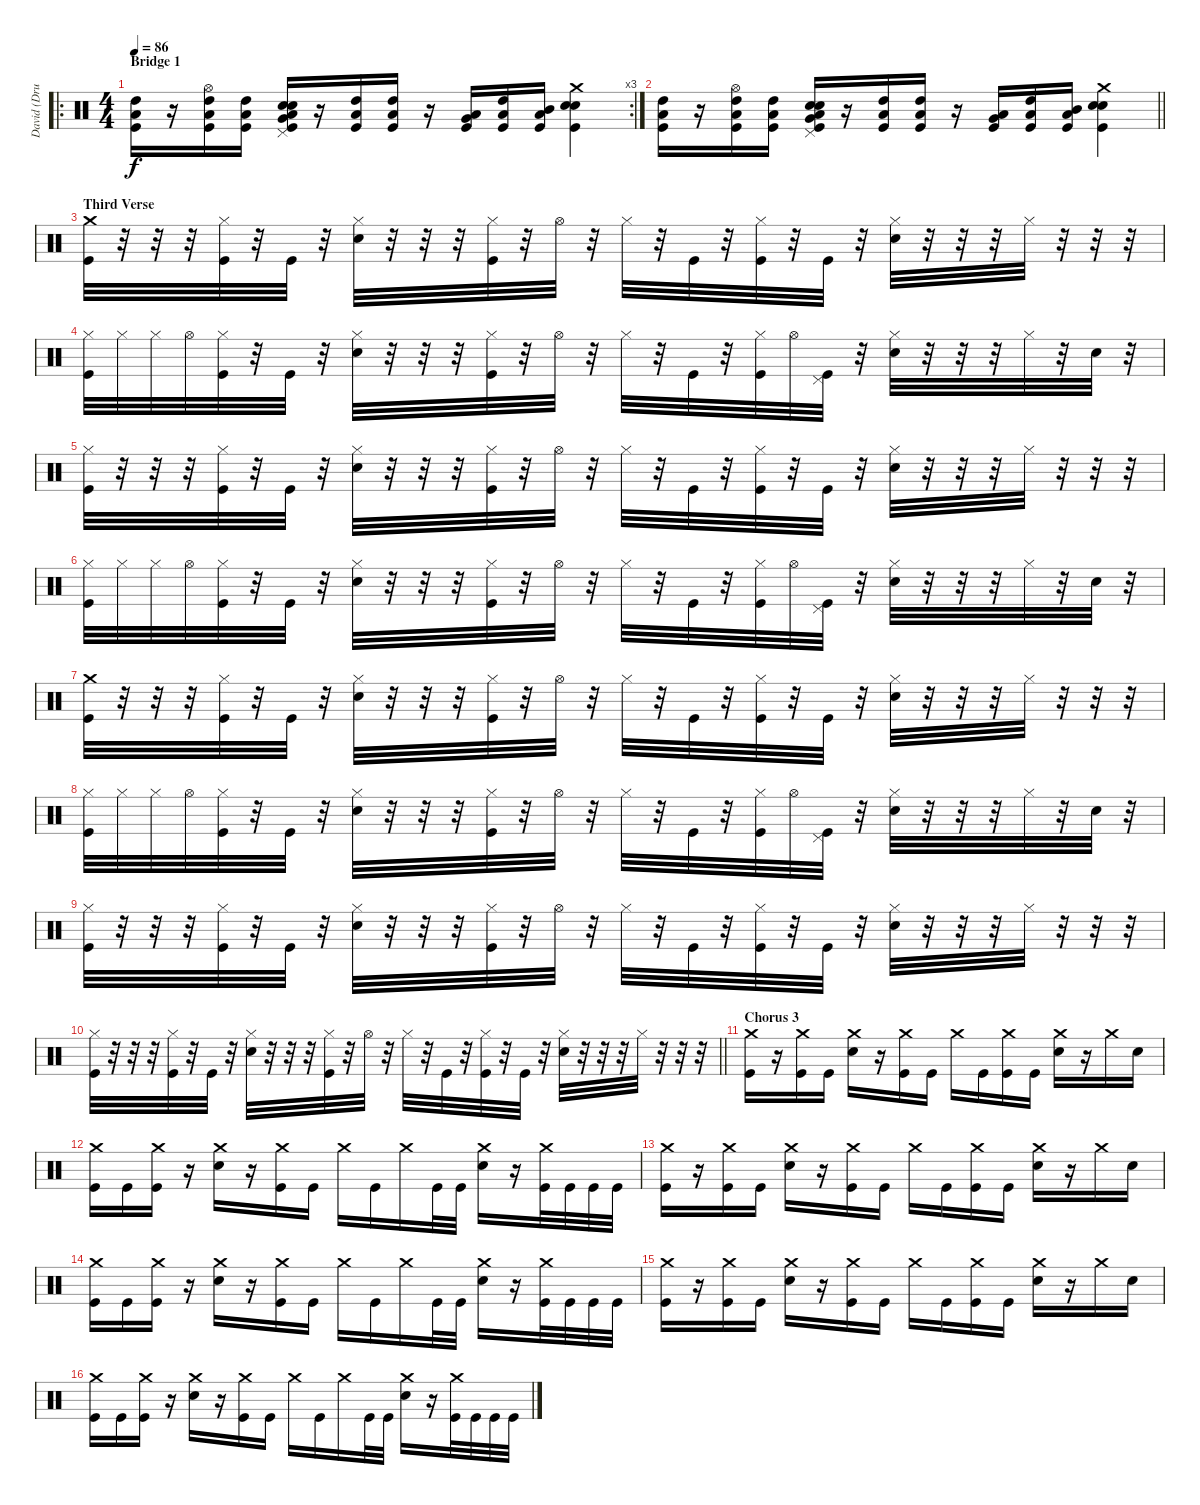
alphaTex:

\track ("David (Drums)" "David (Dru") {instrument percussion}
\staff {score}
\articulation defaults
\ro
\rc 3
\ts (4 4)
\section ("" "Bridge 1")
\tempo 86
\clef neutral
\ks c
("Low Floor Tom (hit)" "High Tom (hit)" "Kick (hit)").16{dy f} r.16 ("Hi-Hat (open)" "Low Floor Tom (hit)" "High Tom (hit)" "Kick (hit)").16 ("Low Floor Tom (hit)" "High Tom (hit)" "Kick (hit)").16 ("Pedal Hi-Hat (hit)" "Low Floor Tom (hit)" "Electric Snare (hit)" "Kick (hit)" "Snare (hit) 2" "Very Low Tom (hit)").16 r.16 ("Low Floor Tom (hit)" "High Tom (hit)" "Kick (hit)").16 ("Low Floor Tom (hit)" "High Tom (hit)" "Kick (hit)").16 r.16 ("Low Floor Tom (hit)" "Very Low Tom (hit)" "Kick (hit)").16 ("Low Floor Tom (hit)" "High Tom (hit)" "Kick (hit)").16 ("Low Floor Tom (hit)" "Mid Tom (hit)" "Kick (hit)").16 ("Crash medium (hit)" "Snare (hit) 2" "Electric Snare (hit)" "Kick (hit)").4 |
\barLineRight lightlight
("Low Floor Tom (hit)" "High Tom (hit)" "Kick (hit)").16 r.16 ("Hi-Hat (open)" "Low Floor Tom (hit)" "High Tom (hit)" "Kick (hit)").16 ("Low Floor Tom (hit)" "High Tom (hit)" "Kick (hit)").16 ("Pedal Hi-Hat (hit)" "Low Floor Tom (hit)" "Electric Snare (hit)" "Kick (hit)" "Snare (hit) 2" "Very Low Tom (hit)").16 r.16 ("Low Floor Tom (hit)" "High Tom (hit)" "Kick (hit)").16 ("Low Floor Tom (hit)" "High Tom (hit)" "Kick (hit)").16 r.16 ("Low Floor Tom (hit)" "Very Low Tom (hit)" "Kick (hit)").16 ("Low Floor Tom (hit)" "High Tom (hit)" "Kick (hit)").16 ("Low Floor Tom (hit)" "Mid Tom (hit)" "Kick (hit)").16 ("Crash medium (hit)" "Snare (hit) 2" "Electric Snare (hit)" "Kick (hit)").4 |
\section ("" "Third Verse")
("Crash medium (hit)" "Kick (hit)").32 r.32 r.32 r.32 ("Hi-Hat (closed)" "Kick (hit)").32 r.32 "Kick (hit)".32 r.32 ("Hi-Hat (closed)" "Electric Snare (hit)").32 r.32 r.32 r.32 ("Hi-Hat (closed)" "Kick (hit)").32 r.32 "Hi-Hat (open)".32 r.32 "Hi-Hat (closed)".32 r.32 "Kick (hit)".32 r.32 ("Hi-Hat (closed)" "Kick (hit)").32 r.32 "Kick (hit)".32 r.32 ("Hi-Hat (closed)" "Electric Snare (hit)").32 r.32 r.32 r.32 "Hi-Hat (closed)".32 r.32 r.32 r.32 |
("Hi-Hat (closed)" "Kick (hit)").32 "Hi-Hat (closed)".32 "Hi-Hat (closed)".32 "Hi-Hat (open)".32 ("Hi-Hat (closed)" "Kick (hit)").32 r.32 "Kick (hit)".32 r.32 ("Hi-Hat (closed)" "Electric Snare (hit)").32 r.32 r.32 r.32 ("Hi-Hat (closed)" "Kick (hit)").32 r.32 "Hi-Hat (open)".32 r.32 "Hi-Hat (closed)".32 r.32 "Kick (hit)".32 r.32 ("Hi-Hat (closed)" "Kick (hit)").32 "Hi-Hat (open)".32 ("Pedal Hi-Hat (hit)" "Kick (hit)").32 r.32 ("Hi-Hat (closed)" "Electric Snare (hit)").32 r.32 r.32 r.32 "Hi-Hat (closed)".32 r.32 "Electric Snare (hit)".32 r.32 |
("Hi-Hat (closed)" "Kick (hit)").32 r.32 r.32 r.32 ("Hi-Hat (closed)" "Kick (hit)").32 r.32 "Kick (hit)".32 r.32 ("Hi-Hat (closed)" "Electric Snare (hit)").32 r.32 r.32 r.32 ("Hi-Hat (closed)" "Kick (hit)").32 r.32 "Hi-Hat (open)".32 r.32 "Hi-Hat (closed)".32 r.32 "Kick (hit)".32 r.32 ("Hi-Hat (closed)" "Kick (hit)").32 r.32 "Kick (hit)".32 r.32 ("Hi-Hat (closed)" "Electric Snare (hit)").32 r.32 r.32 r.32 "Hi-Hat (closed)".32 r.32 r.32 r.32 |
("Hi-Hat (closed)" "Kick (hit)").32 "Hi-Hat (closed)".32 "Hi-Hat (closed)".32 "Hi-Hat (open)".32 ("Hi-Hat (closed)" "Kick (hit)").32 r.32 "Kick (hit)".32 r.32 ("Hi-Hat (closed)" "Electric Snare (hit)").32 r.32 r.32 r.32 ("Hi-Hat (closed)" "Kick (hit)").32 r.32 "Hi-Hat (open)".32 r.32 "Hi-Hat (closed)".32 r.32 "Kick (hit)".32 r.32 ("Hi-Hat (closed)" "Kick (hit)").32 "Hi-Hat (open)".32 ("Pedal Hi-Hat (hit)" "Kick (hit)").32 r.32 ("Hi-Hat (closed)" "Electric Snare (hit)").32 r.32 r.32 r.32 "Hi-Hat (closed)".32 r.32 "Electric Snare (hit)".32 r.32 |
("Crash medium (hit)" "Kick (hit)").32 r.32 r.32 r.32 ("Hi-Hat (closed)" "Kick (hit)").32 r.32 "Kick (hit)".32 r.32 ("Hi-Hat (closed)" "Electric Snare (hit)").32 r.32 r.32 r.32 ("Hi-Hat (closed)" "Kick (hit)").32 r.32 "Hi-Hat (open)".32 r.32 "Hi-Hat (closed)".32 r.32 "Kick (hit)".32 r.32 ("Hi-Hat (closed)" "Kick (hit)").32 r.32 "Kick (hit)".32 r.32 ("Hi-Hat (closed)" "Electric Snare (hit)").32 r.32 r.32 r.32 "Hi-Hat (closed)".32 r.32 r.32 r.32 |
("Hi-Hat (closed)" "Kick (hit)").32 "Hi-Hat (closed)".32 "Hi-Hat (closed)".32 "Hi-Hat (open)".32 ("Hi-Hat (closed)" "Kick (hit)").32 r.32 "Kick (hit)".32 r.32 ("Hi-Hat (closed)" "Electric Snare (hit)").32 r.32 r.32 r.32 ("Hi-Hat (closed)" "Kick (hit)").32 r.32 "Hi-Hat (open)".32 r.32 "Hi-Hat (closed)".32 r.32 "Kick (hit)".32 r.32 ("Hi-Hat (closed)" "Kick (hit)").32 "Hi-Hat (open)".32 ("Pedal Hi-Hat (hit)" "Kick (hit)").32 r.32 ("Hi-Hat (closed)" "Electric Snare (hit)").32 r.32 r.32 r.32 "Hi-Hat (closed)".32 r.32 "Electric Snare (hit)".32 r.32 |
("Hi-Hat (closed)" "Kick (hit)").32 r.32 r.32 r.32 ("Hi-Hat (closed)" "Kick (hit)").32 r.32 "Kick (hit)".32 r.32 ("Hi-Hat (closed)" "Electric Snare (hit)").32 r.32 r.32 r.32 ("Hi-Hat (closed)" "Kick (hit)").32 r.32 "Hi-Hat (open)".32 r.32 "Hi-Hat (closed)".32 r.32 "Kick (hit)".32 r.32 ("Hi-Hat (closed)" "Kick (hit)").32 r.32 "Kick (hit)".32 r.32 ("Hi-Hat (closed)" "Electric Snare (hit)").32 r.32 r.32 r.32 "Hi-Hat (closed)".32 r.32 r.32 r.32 |
\barLineRight lightlight
("Hi-Hat (closed)" "Kick (hit)").32 r.32 r.32 r.32 ("Hi-Hat (closed)" "Kick (hit)").32 r.32 "Kick (hit)".32 r.32 ("Hi-Hat (closed)" "Electric Snare (hit)").32 r.32 r.32 r.32 ("Hi-Hat (closed)" "Kick (hit)").32 r.32 "Hi-Hat (open)".32 r.32 "Hi-Hat (closed)".32 r.32 "Kick (hit)".32 r.32 ("Hi-Hat (closed)" "Kick (hit)").32 r.32 "Kick (hit)".32 r.32 ("Hi-Hat (closed)" "Electric Snare (hit)").32 r.32 r.32 r.32 "Hi-Hat (closed)".32 r.32 r.32 r.32 |
\section ("" "Chorus 3")
("Crash medium (hit)" "Kick (hit)").16 r.16 ("Crash medium (hit)" "Kick (hit)").16 "Kick (hit)".16 ("Crash medium (hit)" "Electric Snare (hit)").16 r.16 ("Crash medium (hit)" "Kick (hit)").16 "Kick (hit)".16 "Crash medium (hit)".16 "Kick (hit)".16 ("Crash medium (hit)" "Kick (hit)").16 "Kick (hit)".16 ("Crash medium (hit)" "Electric Snare (hit)").16 r.16 "Crash medium (hit)".16 "Electric Snare (hit)".16 |
("Crash medium (hit)" "Kick (hit)").16 "Kick (hit)".16 ("Crash medium (hit)" "Kick (hit)").16 r.16 ("Crash medium (hit)" "Electric Snare (hit)").16 r.16 ("Crash medium (hit)" "Kick (hit)").16 "Kick (hit)".16 "Crash medium (hit)".16 "Kick (hit)".16 "Crash medium (hit)".16 "Kick (hit)".32 "Kick (hit)".32 ("Crash medium (hit)" "Electric Snare (hit)").16 r.16 ("Crash medium (hit)" "Kick (hit)").32 "Kick (hit)".32 "Kick (hit)".32 "Kick (hit)".32 |
("Crash medium (hit)" "Kick (hit)").16 r.16 ("Crash medium (hit)" "Kick (hit)").16 "Kick (hit)".16 ("Crash medium (hit)" "Electric Snare (hit)").16 r.16 ("Crash medium (hit)" "Kick (hit)").16 "Kick (hit)".16 "Crash medium (hit)".16 "Kick (hit)".16 ("Crash medium (hit)" "Kick (hit)").16 "Kick (hit)".16 ("Crash medium (hit)" "Electric Snare (hit)").16 r.16 "Crash medium (hit)".16 "Electric Snare (hit)".16 |
("Crash medium (hit)" "Kick (hit)").16 "Kick (hit)".16 ("Crash medium (hit)" "Kick (hit)").16 r.16 ("Crash medium (hit)" "Electric Snare (hit)").16 r.16 ("Crash medium (hit)" "Kick (hit)").16 "Kick (hit)".16 "Crash medium (hit)".16 "Kick (hit)".16 "Crash medium (hit)".16 "Kick (hit)".32 "Kick (hit)".32 ("Crash medium (hit)" "Electric Snare (hit)").16 r.16 ("Crash medium (hit)" "Kick (hit)").32 "Kick (hit)".32 "Kick (hit)".32 "Kick (hit)".32 |
("Crash medium (hit)" "Kick (hit)").16 r.16 ("Crash medium (hit)" "Kick (hit)").16 "Kick (hit)".16 ("Crash medium (hit)" "Electric Snare (hit)").16 r.16 ("Crash medium (hit)" "Kick (hit)").16 "Kick (hit)".16 "Crash medium (hit)".16 "Kick (hit)".16 ("Crash medium (hit)" "Kick (hit)").16 "Kick (hit)".16 ("Crash medium (hit)" "Electric Snare (hit)").16 r.16 "Crash medium (hit)".16 "Electric Snare (hit)".16 |
("Crash medium (hit)" "Kick (hit)").16 "Kick (hit)".16 ("Crash medium (hit)" "Kick (hit)").16 r.16 ("Crash medium (hit)" "Electric Snare (hit)").16 r.16 ("Crash medium (hit)" "Kick (hit)").16 "Kick (hit)".16 "Crash medium (hit)".16 "Kick (hit)".16 "Crash medium (hit)".16 "Kick (hit)".32 "Kick (hit)".32 ("Crash medium (hit)" "Electric Snare (hit)").16 r.16 ("Crash medium (hit)" "Kick (hit)").32 "Kick (hit)".32 "Kick (hit)".32 "Kick (hit)".32
